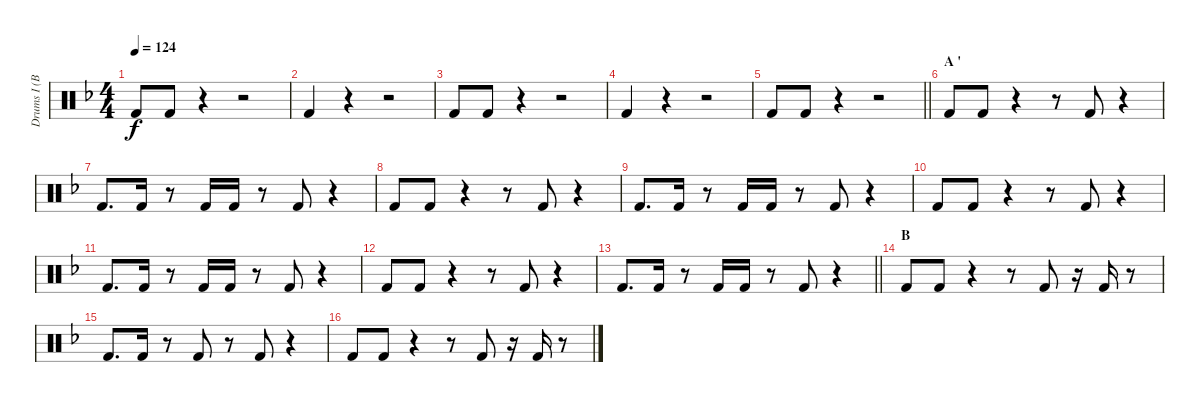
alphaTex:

\track ("Drums I (Bass Drums) (RUKA)" "Drums I (B") {instrument percussion}
\staff {score}
\articulation defaults
\ts (4 4)
\tempo 124
\clef neutral
\ks f "Kick (hit) 2".8{dy f} "Kick (hit) 2".8
r.4 r.2 |
"Kick (hit) 2".4 r.4 r.2 |
"Kick (hit) 2".8 "Kick (hit) 2".8 r.4 r.2 |
"Kick (hit) 2".4 r.4 r.2 |
\barLineRight lightlight "Kick (hit) 2".8 "Kick (hit) 2".8
r.4 r.2 |
\section ("" "A '")
"Kick (hit) 2".8 "Kick (hit) 2".8 r.4 r.8 "Kick (hit) 2".8 r.4 |
"Kick (hit) 2".8{d} "Kick (hit) 2".16 r.8 "Kick (hit) 2".16 "Kick (hit) 2".16 r.8 "Kick (hit) 2".8 r.4 |
"Kick (hit) 2".8 "Kick (hit) 2".8 r.4 r.8 "Kick (hit) 2".8 r.4 |
"Kick (hit) 2".8{d} "Kick (hit) 2".16 r.8 "Kick (hit) 2".16 "Kick (hit) 2".16 r.8 "Kick (hit) 2".8 r.4 |
"Kick (hit) 2".8 "Kick (hit) 2".8 r.4 r.8 "Kick (hit) 2".8 r.4 |
"Kick (hit) 2".8{d} "Kick (hit) 2".16 r.8 "Kick (hit) 2".16 "Kick (hit) 2".16 r.8 "Kick (hit) 2".8 r.4 |
"Kick (hit) 2".8 "Kick (hit) 2".8 r.4 r.8 "Kick (hit) 2".8 r.4 |
\barLineRight lightlight "Kick (hit) 2".8{d} "Kick (hit) 2".16
r.8 "Kick (hit) 2".16 "Kick (hit) 2".16 r.8 "Kick (hit) 2".8 r.4 |
\section ("" "B")
"Kick (hit) 2".8 "Kick (hit) 2".8 r.4 r.8 "Kick (hit) 2".8 r.16 "Kick (hit) 2".16 r.8 |
"Kick (hit) 2".8{d} "Kick (hit) 2".16 r.8 "Kick (hit) 2".8 r.8 "Kick (hit) 2".8 r.4 |
"Kick (hit) 2".8 "Kick (hit) 2".8 r.4 r.8 "Kick (hit) 2".8 r.16 "Kick (hit) 2".16 r.8
